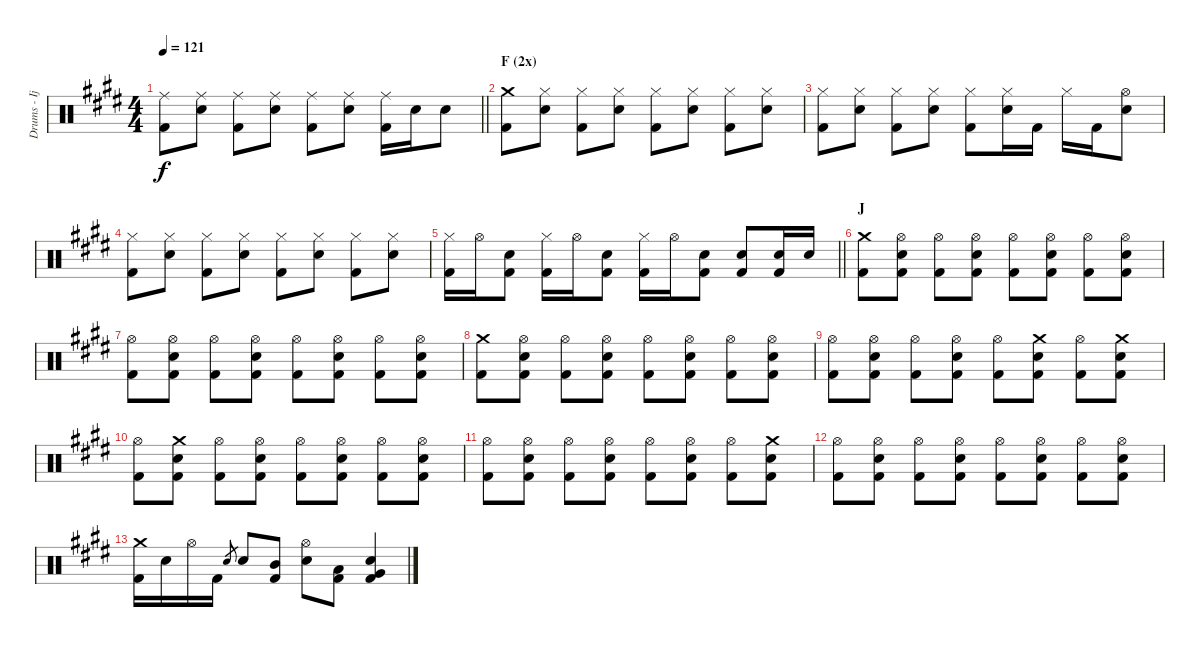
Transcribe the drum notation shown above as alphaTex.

\track ("Drums - Ijichi Kiyoshi" "Drums - Ij") {instrument percussion}
\staff {score}
\articulation defaults
\ts (4 4)
\tempo 121
\clef neutral
\barLineRight lightlight
\ks e
("Ride (middle)" "Kick (hit) 2").8{dy f} ("Ride (middle)" "Electric Snare (hit)").8 ("Ride (middle)" "Kick (hit) 2").8 ("Ride (middle)" "Electric Snare (hit)").8 ("Ride (middle)" "Kick (hit) 2").8 ("Ride (middle)" "Electric Snare (hit)").8 ("Ride (middle)" "Kick (hit) 2").16 "Electric Snare (hit)".16 "Electric Snare (hit)".8 |
\section ("" "F (2x)")
("Crash medium (hit)" "Kick (hit) 2").8 ("Hi-Hat (closed)" "Electric Snare (hit)").8 ("Hi-Hat (closed)" "Kick (hit) 2").8 ("Hi-Hat (closed)" "Electric Snare (hit)").8 ("Hi-Hat (closed)" "Kick (hit) 2").8 ("Hi-Hat (closed)" "Electric Snare (hit)").8 ("Hi-Hat (closed)" "Kick (hit) 2").8 ("Hi-Hat (closed)" "Electric Snare (hit)").8 |
("Hi-Hat (closed)" "Kick (hit) 2").8 ("Hi-Hat (closed)" "Electric Snare (hit)").8 ("Hi-Hat (closed)" "Kick (hit) 2").8 ("Hi-Hat (closed)" "Electric Snare (hit)").8 ("Hi-Hat (closed)" "Kick (hit) 2").8 ("Hi-Hat (closed)" "Electric Snare (hit)").16 "Kick (hit) 2".16 "Hi-Hat (closed)".16 "Kick (hit) 2".16 ("Hi-Hat (open)" "Electric Snare (hit)").8 |
("Hi-Hat (closed)" "Kick (hit) 2").8 ("Hi-Hat (closed)" "Electric Snare (hit)").8 ("Hi-Hat (closed)" "Kick (hit) 2").8 ("Hi-Hat (closed)" "Electric Snare (hit)").8 ("Hi-Hat (closed)" "Kick (hit) 2").8 ("Hi-Hat (closed)" "Electric Snare (hit)").8 ("Hi-Hat (closed)" "Kick (hit) 2").8 ("Hi-Hat (closed)" "Electric Snare (hit)").8 |
\barLineRight lightlight
("Hi-Hat (closed)" "Kick (hit) 2").16 "Hi-Hat (open)".16 ("Electric Snare (hit)" "Kick (hit) 2").8 ("Hi-Hat (closed)" "Kick (hit) 2").16 "Hi-Hat (open)".16 ("Electric Snare (hit)" "Kick (hit) 2").8 ("Hi-Hat (closed)" "Kick (hit) 2").16 "Hi-Hat (open)".16 ("Electric Snare (hit)" "Kick (hit) 2").8 ("Electric Snare (hit)" "Kick (hit) 2").8 ("Electric Snare (hit)" "Kick (hit) 2").16 "Electric Snare (hit)".16 |
\section ("" "J")
("Crash medium (hit)" "Kick (hit) 2").8 ("Hi-Hat (open)" "Electric Snare (hit)" "Kick (hit) 2").8 ("Hi-Hat (open)" "Kick (hit) 2").8 ("Hi-Hat (open)" "Electric Snare (hit)" "Kick (hit) 2").8 ("Hi-Hat (open)" "Kick (hit) 2").8 ("Hi-Hat (open)" "Electric Snare (hit)" "Kick (hit) 2").8 ("Hi-Hat (open)" "Kick (hit) 2").8 ("Hi-Hat (open)" "Electric Snare (hit)" "Kick (hit) 2").8 |
("Hi-Hat (open)" "Kick (hit) 2").8 ("Hi-Hat (open)" "Electric Snare (hit)" "Kick (hit) 2").8 ("Hi-Hat (open)" "Kick (hit) 2").8 ("Hi-Hat (open)" "Electric Snare (hit)" "Kick (hit) 2").8 ("Hi-Hat (open)" "Kick (hit) 2").8 ("Hi-Hat (open)" "Electric Snare (hit)" "Kick (hit) 2").8 ("Hi-Hat (open)" "Kick (hit) 2").8 ("Hi-Hat (open)" "Electric Snare (hit)" "Kick (hit) 2").8 |
("Crash medium (hit)" "Kick (hit) 2").8 ("Hi-Hat (open)" "Electric Snare (hit)" "Kick (hit) 2").8 ("Hi-Hat (open)" "Kick (hit) 2").8 ("Hi-Hat (open)" "Electric Snare (hit)" "Kick (hit) 2").8 ("Hi-Hat (open)" "Kick (hit) 2").8 ("Hi-Hat (open)" "Electric Snare (hit)" "Kick (hit) 2").8 ("Hi-Hat (open)" "Kick (hit) 2").8 ("Hi-Hat (open)" "Electric Snare (hit)" "Kick (hit) 2").8 |
("Hi-Hat (open)" "Kick (hit) 2").8 ("Hi-Hat (open)" "Electric Snare (hit)" "Kick (hit) 2").8 ("Hi-Hat (open)" "Kick (hit) 2").8 ("Hi-Hat (open)" "Electric Snare (hit)" "Kick (hit) 2").8 ("Hi-Hat (open)" "Kick (hit) 2").8 ("Crash medium (hit)" "Electric Snare (hit)" "Kick (hit) 2").8 ("Hi-Hat (open)" "Kick (hit) 2").8 ("Crash medium (hit)" "Electric Snare (hit)" "Kick (hit) 2").8 |
("Hi-Hat (open)" "Kick (hit) 2").8 ("Crash medium (hit)" "Electric Snare (hit)" "Kick (hit) 2").8 ("Hi-Hat (open)" "Kick (hit) 2").8 ("Hi-Hat (open)" "Electric Snare (hit)" "Kick (hit) 2").8 ("Hi-Hat (open)" "Kick (hit) 2").8 ("Hi-Hat (open)" "Electric Snare (hit)" "Kick (hit) 2").8 ("Hi-Hat (open)" "Kick (hit) 2").8 ("Hi-Hat (open)" "Electric Snare (hit)" "Kick (hit) 2").8 |
("Hi-Hat (open)" "Kick (hit) 2").8 ("Hi-Hat (open)" "Electric Snare (hit)" "Kick (hit) 2").8 ("Hi-Hat (open)" "Kick (hit) 2").8 ("Hi-Hat (open)" "Electric Snare (hit)" "Kick (hit) 2").8 ("Hi-Hat (open)" "Kick (hit) 2").8 ("Hi-Hat (open)" "Electric Snare (hit)" "Kick (hit) 2").8 ("Hi-Hat (open)" "Kick (hit) 2").8 ("Crash medium (hit)" "Electric Snare (hit)" "Kick (hit) 2").8 |
("Hi-Hat (open)" "Kick (hit) 2").8 ("Hi-Hat (open)" "Electric Snare (hit)" "Kick (hit) 2").8 ("Hi-Hat (open)" "Kick (hit) 2").8 ("Hi-Hat (open)" "Electric Snare (hit)" "Kick (hit) 2").8 ("Hi-Hat (open)" "Kick (hit) 2").8 ("Hi-Hat (open)" "Electric Snare (hit)" "Kick (hit) 2").8 ("Hi-Hat (open)" "Kick (hit) 2").8 ("Hi-Hat (open)" "Electric Snare (hit)" "Kick (hit) 2").8 |
("Crash medium (hit)" "Kick (hit) 2").16 "Electric Snare (hit)".16 "Hi-Hat (open)".16 "Kick (hit) 2".16 "Electric Snare (hit)".8{gr} "Electric Snare (hit)".8 ("Mid Tom (hit)" "Kick (hit) 2").8 ("Hi-Hat (open)" "Electric Snare (hit)").8 ("Low Tom (hit)" "Kick (hit) 2").8 ("Electric Snare (hit)" "Very Low Tom (hit)" "Kick (hit) 2").4
